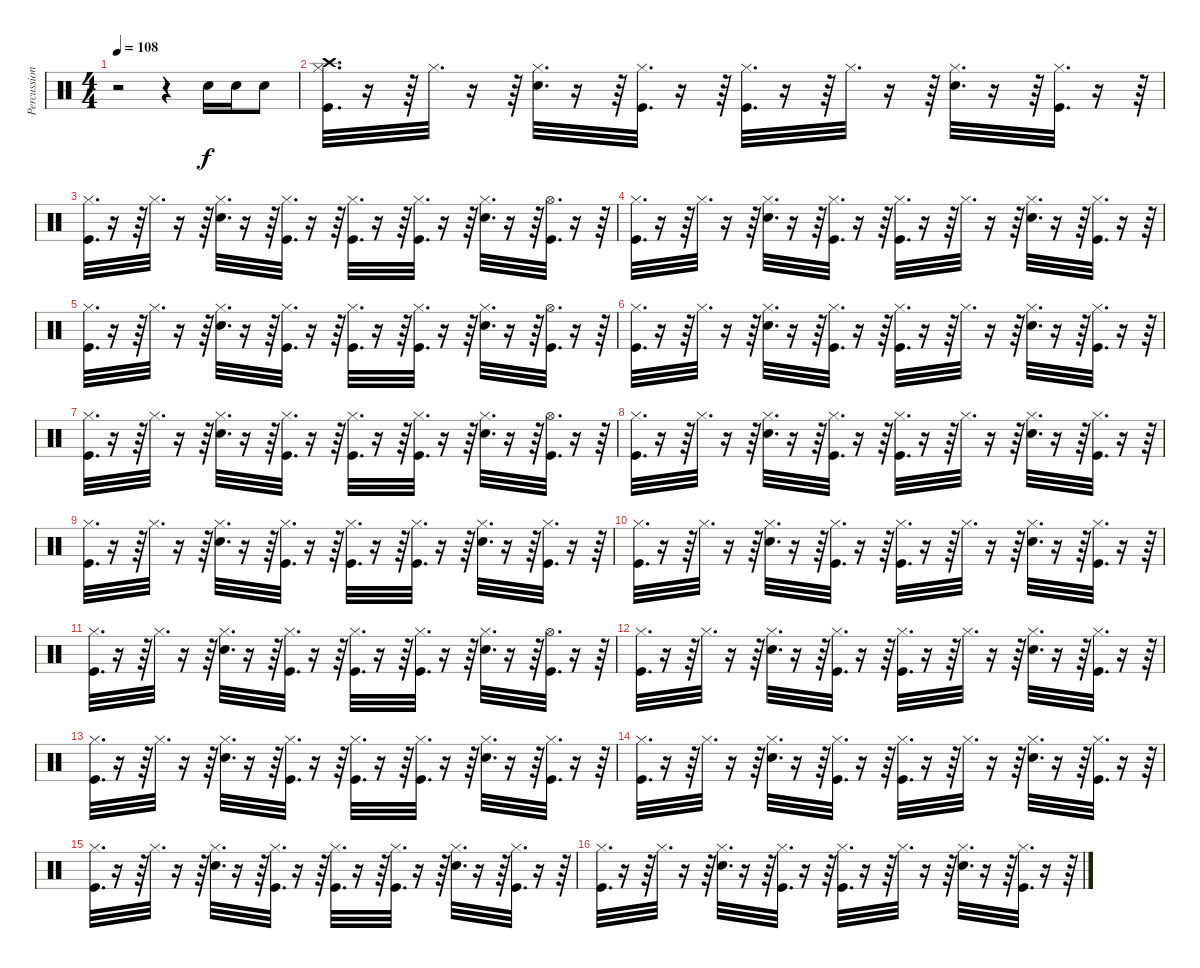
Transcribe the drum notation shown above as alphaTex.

\track ("Percussions" "Percussion") {instrument percussion}
\staff {score}
\articulation defaults
\ts (4 4)
\tempo 108
\clef neutral
\ks c
r.2{dy f} r.4 "Snare (hit) 2".16 "Snare (hit) 2".16 "Snare (hit) 2".8 |
("Crash high (hit)" "Kick (hit)" "Hi-Hat (closed)").32{d} r.16 r.64 "Hi-Hat (closed)".32{d} r.16 r.64 ("Hi-Hat (closed)" "Snare (hit) 2").32{d} r.16 r.64 ("Hi-Hat (closed)" "Kick (hit)").32{d} r.16 r.64 ("Hi-Hat (closed)" "Kick (hit)").32{d} r.16 r.64 "Hi-Hat (closed)".32{d} r.16 r.64 ("Hi-Hat (closed)" "Snare (hit) 2").32{d} r.16 r.64 ("Hi-Hat (closed)" "Kick (hit)").32{d} r.16 r.64 |
("Hi-Hat (closed)" "Kick (hit)").32{d} r.16 r.64 "Hi-Hat (closed)".32{d} r.16 r.64 ("Hi-Hat (closed)" "Snare (hit) 2").32{d} r.16 r.64 ("Hi-Hat (closed)" "Kick (hit)").32{d} r.16 r.64 ("Hi-Hat (closed)" "Kick (hit)").32{d} r.16 r.64 ("Hi-Hat (closed)" "Kick (hit)").32{d} r.16 r.64 ("Hi-Hat (closed)" "Snare (hit) 2").32{d} r.16 r.64 ("Hi-Hat (open)" "Kick (hit)").32{d} r.16 r.64 |
("Hi-Hat (closed)" "Kick (hit)").32{d} r.16 r.64 "Hi-Hat (closed)".32{d} r.16 r.64 ("Hi-Hat (closed)" "Snare (hit) 2").32{d} r.16 r.64 ("Hi-Hat (closed)" "Kick (hit)").32{d} r.16 r.64 ("Hi-Hat (closed)" "Kick (hit)").32{d} r.16 r.64 "Hi-Hat (closed)".32{d} r.16 r.64 ("Hi-Hat (closed)" "Snare (hit) 2").32{d} r.16 r.64 ("Hi-Hat (closed)" "Kick (hit)").32{d} r.16 r.64 |
("Hi-Hat (closed)" "Kick (hit)").32{d} r.16 r.64 "Hi-Hat (closed)".32{d} r.16 r.64 ("Hi-Hat (closed)" "Snare (hit) 2").32{d} r.16 r.64 ("Hi-Hat (closed)" "Kick (hit)").32{d} r.16 r.64 ("Hi-Hat (closed)" "Kick (hit)").32{d} r.16 r.64 ("Hi-Hat (closed)" "Kick (hit)").32{d} r.16 r.64 ("Hi-Hat (closed)" "Snare (hit) 2").32{d} r.16 r.64 ("Hi-Hat (open)" "Kick (hit)").32{d} r.16 r.64 |
("Hi-Hat (closed)" "Kick (hit)").32{d} r.16 r.64 "Hi-Hat (closed)".32{d} r.16 r.64 ("Hi-Hat (closed)" "Snare (hit) 2").32{d} r.16 r.64 ("Hi-Hat (closed)" "Kick (hit)").32{d} r.16 r.64 ("Hi-Hat (closed)" "Kick (hit)").32{d} r.16 r.64 "Hi-Hat (closed)".32{d} r.16 r.64 ("Hi-Hat (closed)" "Snare (hit) 2").32{d} r.16 r.64 ("Hi-Hat (closed)" "Kick (hit)").32{d} r.16 r.64 |
("Hi-Hat (closed)" "Kick (hit)").32{d} r.16 r.64 "Hi-Hat (closed)".32{d} r.16 r.64 ("Hi-Hat (closed)" "Snare (hit) 2").32{d} r.16 r.64 ("Hi-Hat (closed)" "Kick (hit)").32{d} r.16 r.64 ("Hi-Hat (closed)" "Kick (hit)").32{d} r.16 r.64 ("Hi-Hat (closed)" "Kick (hit)").32{d} r.16 r.64 ("Hi-Hat (closed)" "Snare (hit) 2").32{d} r.16 r.64 ("Hi-Hat (open)" "Kick (hit)").32{d} r.16 r.64 |
("Hi-Hat (closed)" "Kick (hit)").32{d} r.16 r.64 "Hi-Hat (closed)".32{d} r.16 r.64 ("Hi-Hat (closed)" "Snare (hit) 2").32{d} r.16 r.64 ("Hi-Hat (closed)" "Kick (hit)").32{d} r.16 r.64 ("Hi-Hat (closed)" "Kick (hit)").32{d} r.16 r.64 "Hi-Hat (closed)".32{d} r.16 r.64 ("Hi-Hat (closed)" "Snare (hit) 2").32{d} r.16 r.64 ("Hi-Hat (closed)" "Kick (hit)").32{d} r.16 r.64 |
("Hi-Hat (closed)" "Kick (hit)").32{d} r.16 r.64 "Hi-Hat (closed)".32{d} r.16 r.64 ("Hi-Hat (closed)" "Snare (hit) 2").32{d} r.16 r.64 ("Hi-Hat (closed)" "Kick (hit)").32{d} r.16 r.64 ("Hi-Hat (closed)" "Kick (hit)").32{d} r.16 r.64 ("Hi-Hat (closed)" "Kick (hit)").32{d} r.16 r.64 ("Hi-Hat (closed)" "Snare (hit) 2").32{d} r.16 r.64 ("Hi-Hat (closed)" "Kick (hit)").32{d} r.16 r.64 |
("Hi-Hat (closed)" "Kick (hit)").32{d} r.16 r.64 "Hi-Hat (closed)".32{d} r.16 r.64 ("Hi-Hat (closed)" "Snare (hit) 2").32{d} r.16 r.64 ("Hi-Hat (closed)" "Kick (hit)").32{d} r.16 r.64 ("Hi-Hat (closed)" "Kick (hit)").32{d} r.16 r.64 "Hi-Hat (closed)".32{d} r.16 r.64 ("Hi-Hat (closed)" "Snare (hit) 2").32{d} r.16 r.64 ("Hi-Hat (closed)" "Kick (hit)").32{d} r.16 r.64 |
("Hi-Hat (closed)" "Kick (hit)").32{d} r.16 r.64 "Hi-Hat (closed)".32{d} r.16 r.64 ("Hi-Hat (closed)" "Snare (hit) 2").32{d} r.16 r.64 ("Hi-Hat (closed)" "Kick (hit)").32{d} r.16 r.64 ("Hi-Hat (closed)" "Kick (hit)").32{d} r.16 r.64 ("Hi-Hat (closed)" "Kick (hit)").32{d} r.16 r.64 ("Hi-Hat (closed)" "Snare (hit) 2").32{d} r.16 r.64 ("Hi-Hat (open)" "Kick (hit)").32{d} r.16 r.64 |
("Hi-Hat (closed)" "Kick (hit)").32{d} r.16 r.64 "Hi-Hat (closed)".32{d} r.16 r.64 ("Hi-Hat (closed)" "Snare (hit) 2").32{d} r.16 r.64 ("Hi-Hat (closed)" "Kick (hit)").32{d} r.16 r.64 ("Hi-Hat (closed)" "Kick (hit)").32{d} r.16 r.64 "Hi-Hat (closed)".32{d} r.16 r.64 ("Hi-Hat (closed)" "Snare (hit) 2").32{d} r.16 r.64 ("Hi-Hat (closed)" "Kick (hit)").32{d} r.16 r.64 |
("Hi-Hat (closed)" "Kick (hit)").32{d} r.16 r.64 "Hi-Hat (closed)".32{d} r.16 r.64 ("Hi-Hat (closed)" "Snare (hit) 2").32{d} r.16 r.64 ("Hi-Hat (closed)" "Kick (hit)").32{d} r.16 r.64 ("Hi-Hat (closed)" "Kick (hit)").32{d} r.16 r.64 ("Hi-Hat (closed)" "Kick (hit)").32{d} r.16 r.64 ("Hi-Hat (closed)" "Snare (hit) 2").32{d} r.16 r.64 ("Hi-Hat (closed)" "Kick (hit)").32{d} r.16 r.64 |
("Hi-Hat (closed)" "Kick (hit)").32{d} r.16 r.64 "Hi-Hat (closed)".32{d} r.16 r.64 ("Hi-Hat (closed)" "Snare (hit) 2").32{d} r.16 r.64 ("Hi-Hat (closed)" "Kick (hit)").32{d} r.16 r.64 ("Hi-Hat (closed)" "Kick (hit)").32{d} r.16 r.64 "Hi-Hat (closed)".32{d} r.16 r.64 ("Hi-Hat (closed)" "Snare (hit) 2").32{d} r.16 r.64 ("Hi-Hat (closed)" "Kick (hit)").32{d} r.16 r.64 |
("Hi-Hat (closed)" "Kick (hit)").32{d} r.16 r.64 "Hi-Hat (closed)".32{d} r.16 r.64 ("Hi-Hat (closed)" "Snare (hit) 2").32{d} r.16 r.64 ("Hi-Hat (closed)" "Kick (hit)").32{d} r.16 r.64 ("Hi-Hat (closed)" "Kick (hit)").32{d} r.16 r.64 ("Hi-Hat (closed)" "Kick (hit)").32{d} r.16 r.64 ("Hi-Hat (closed)" "Snare (hit) 2").32{d} r.16 r.64 ("Hi-Hat (closed)" "Kick (hit)").32{d} r.16 r.64 |
("Hi-Hat (closed)" "Kick (hit)").32{d} r.16 r.64 "Hi-Hat (closed)".32{d} r.16 r.64 ("Hi-Hat (closed)" "Snare (hit) 2").32{d} r.16 r.64 ("Hi-Hat (closed)" "Kick (hit)").32{d} r.16 r.64 ("Hi-Hat (closed)" "Kick (hit)").32{d} r.16 r.64 "Hi-Hat (closed)".32{d} r.16 r.64 ("Hi-Hat (closed)" "Snare (hit) 2").32{d} r.16 r.64 ("Hi-Hat (closed)" "Kick (hit)").32{d} r.16 r.64
